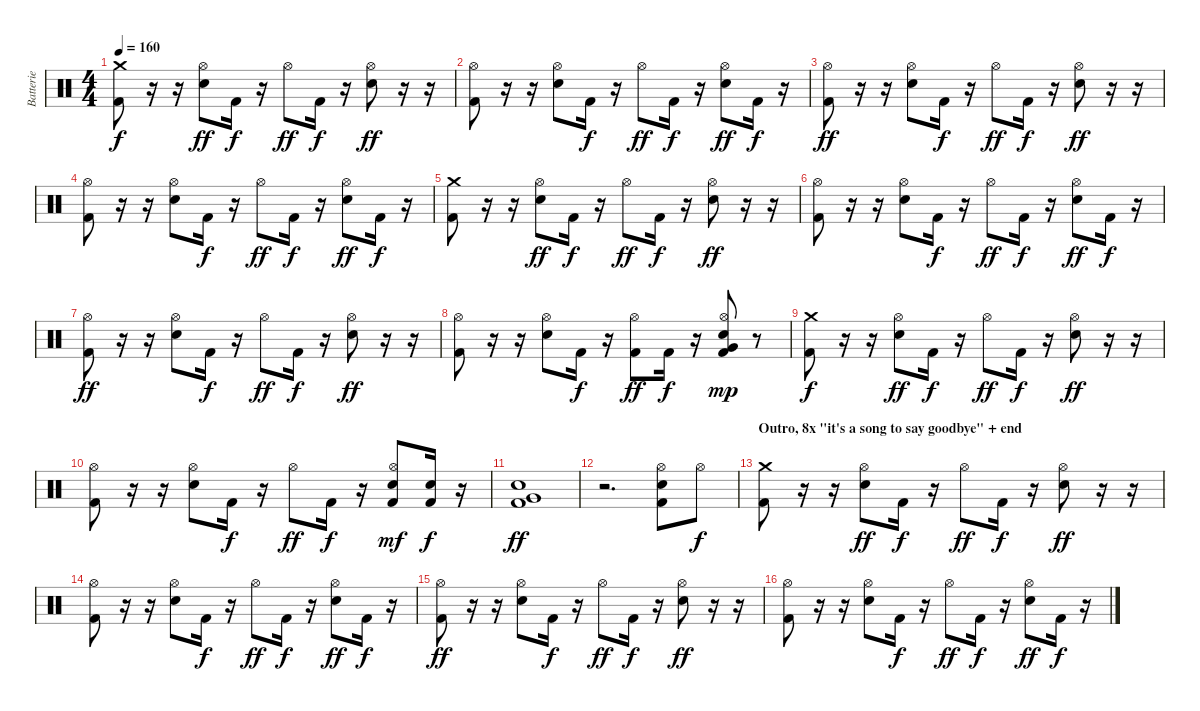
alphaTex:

\track ("Batterie" "Batterie") {instrument percussion}
\staff {score}
\articulation defaults
\ts (4 4)
\tempo 160
\clef neutral
\ks c
("Crash medium (hit)" "Kick (hit) 2").8{dy f} r.16 r.16 ("Hi-Hat (open)" "Snare (hit) 2").8{dy ff} "Kick (hit) 2".16{dy f} r.16 "Hi-Hat (open)".8{dy ff} "Kick (hit) 2".16{dy f} r.16 ("Hi-Hat (open)" "Snare (hit) 2").8{dy ff} r.16 r.16 |
("Hi-Hat (open)" "Kick (hit) 2").8 r.16 r.16 ("Hi-Hat (open)" "Snare (hit) 2").8 "Kick (hit) 2".16{dy f} r.16 "Hi-Hat (open)".8{dy ff} "Kick (hit) 2".16{dy f} r.16 ("Hi-Hat (open)" "Snare (hit) 2").8{dy ff} "Kick (hit) 2".16{dy f} r.16 |
("Hi-Hat (open)" "Kick (hit) 2").8{dy ff} r.16 r.16 ("Hi-Hat (open)" "Snare (hit) 2").8 "Kick (hit) 2".16{dy f} r.16 "Hi-Hat (open)".8{dy ff} "Kick (hit) 2".16{dy f} r.16 ("Hi-Hat (open)" "Snare (hit) 2").8{dy ff} r.16 r.16 |
("Hi-Hat (open)" "Kick (hit) 2").8 r.16 r.16 ("Hi-Hat (open)" "Snare (hit) 2").8 "Kick (hit) 2".16{dy f} r.16 "Hi-Hat (open)".8{dy ff} "Kick (hit) 2".16{dy f} r.16 ("Hi-Hat (open)" "Snare (hit) 2").8{dy ff} "Kick (hit) 2".16{dy f} r.16 |
("Crash medium (hit)" "Kick (hit) 2").8 r.16 r.16 ("Hi-Hat (open)" "Snare (hit) 2").8{dy ff} "Kick (hit) 2".16{dy f} r.16 "Hi-Hat (open)".8{dy ff} "Kick (hit) 2".16{dy f} r.16 ("Hi-Hat (open)" "Snare (hit) 2").8{dy ff} r.16 r.16 |
("Hi-Hat (open)" "Kick (hit) 2").8 r.16 r.16 ("Hi-Hat (open)" "Snare (hit) 2").8 "Kick (hit) 2".16{dy f} r.16 "Hi-Hat (open)".8{dy ff} "Kick (hit) 2".16{dy f} r.16 ("Hi-Hat (open)" "Snare (hit) 2").8{dy ff} "Kick (hit) 2".16{dy f} r.16 |
("Hi-Hat (open)" "Kick (hit) 2").8{dy ff} r.16 r.16 ("Hi-Hat (open)" "Snare (hit) 2").8 "Kick (hit) 2".16{dy f} r.16 "Hi-Hat (open)".8{dy ff} "Kick (hit) 2".16{dy f} r.16 ("Hi-Hat (open)" "Snare (hit) 2").8{dy ff} r.16 r.16 |
("Hi-Hat (open)" "Kick (hit) 2").8 r.16 r.16 ("Hi-Hat (open)" "Snare (hit) 2").8 "Kick (hit) 2".16{dy f} r.16 ("Hi-Hat (open)" "Kick (hit) 2").8{dy ff} "Kick (hit) 2".16{dy f} r.16 ("Hi-Hat (open)" "Snare (hit) 2" "Very Low Tom (hit)" "Kick (hit) 2").8{dy mp} r.8 |
("Crash medium (hit)" "Kick (hit) 2").8{dy f} r.16 r.16 ("Hi-Hat (open)" "Snare (hit) 2").8{dy ff} "Kick (hit) 2".16{dy f} r.16 "Hi-Hat (open)".8{dy ff} "Kick (hit) 2".16{dy f} r.16 ("Hi-Hat (open)" "Snare (hit) 2").8{dy ff} r.16 r.16 |
("Hi-Hat (open)" "Kick (hit) 2").8 r.16 r.16 ("Hi-Hat (open)" "Snare (hit) 2").8 "Kick (hit) 2".16{dy f} r.16 "Hi-Hat (open)".8{dy ff} "Kick (hit) 2".16{dy f} r.16 ("Hi-Hat (open)" "Snare (hit) 2" "Kick (hit) 2").8{dy mf} ("Snare (hit) 2" "Kick (hit) 2").16{dy f} r.16 |
("Snare (hit) 2" "Very Low Tom (hit)" "Kick (hit) 2").1{dy ff} |
r.2{d} ("Hi-Hat (open)" "Snare (hit) 2" "Kick (hit) 2").8 "Hi-Hat (open)".8{dy f} |
\section ("" "Outro, 8x \"it's a song to say goodbye\" + end")
("Crash medium (hit)" "Kick (hit) 2").8 r.16 r.16 ("Hi-Hat (open)" "Snare (hit) 2").8{dy ff} "Kick (hit) 2".16{dy f} r.16 "Hi-Hat (open)".8{dy ff} "Kick (hit) 2".16{dy f} r.16 ("Hi-Hat (open)" "Snare (hit) 2").8{dy ff} r.16 r.16 |
("Hi-Hat (open)" "Kick (hit) 2").8 r.16 r.16 ("Hi-Hat (open)" "Snare (hit) 2").8 "Kick (hit) 2".16{dy f} r.16 "Hi-Hat (open)".8{dy ff} "Kick (hit) 2".16{dy f} r.16 ("Hi-Hat (open)" "Snare (hit) 2").8{dy ff} "Kick (hit) 2".16{dy f} r.16 |
("Hi-Hat (open)" "Kick (hit) 2").8{dy ff} r.16 r.16 ("Hi-Hat (open)" "Snare (hit) 2").8 "Kick (hit) 2".16{dy f} r.16 "Hi-Hat (open)".8{dy ff} "Kick (hit) 2".16{dy f} r.16 ("Hi-Hat (open)" "Snare (hit) 2").8{dy ff} r.16 r.16 |
("Hi-Hat (open)" "Kick (hit) 2").8 r.16 r.16 ("Hi-Hat (open)" "Snare (hit) 2").8 "Kick (hit) 2".16{dy f} r.16 "Hi-Hat (open)".8{dy ff} "Kick (hit) 2".16{dy f} r.16 ("Hi-Hat (open)" "Snare (hit) 2").8{dy ff} "Kick (hit) 2".16{dy f} r.16
